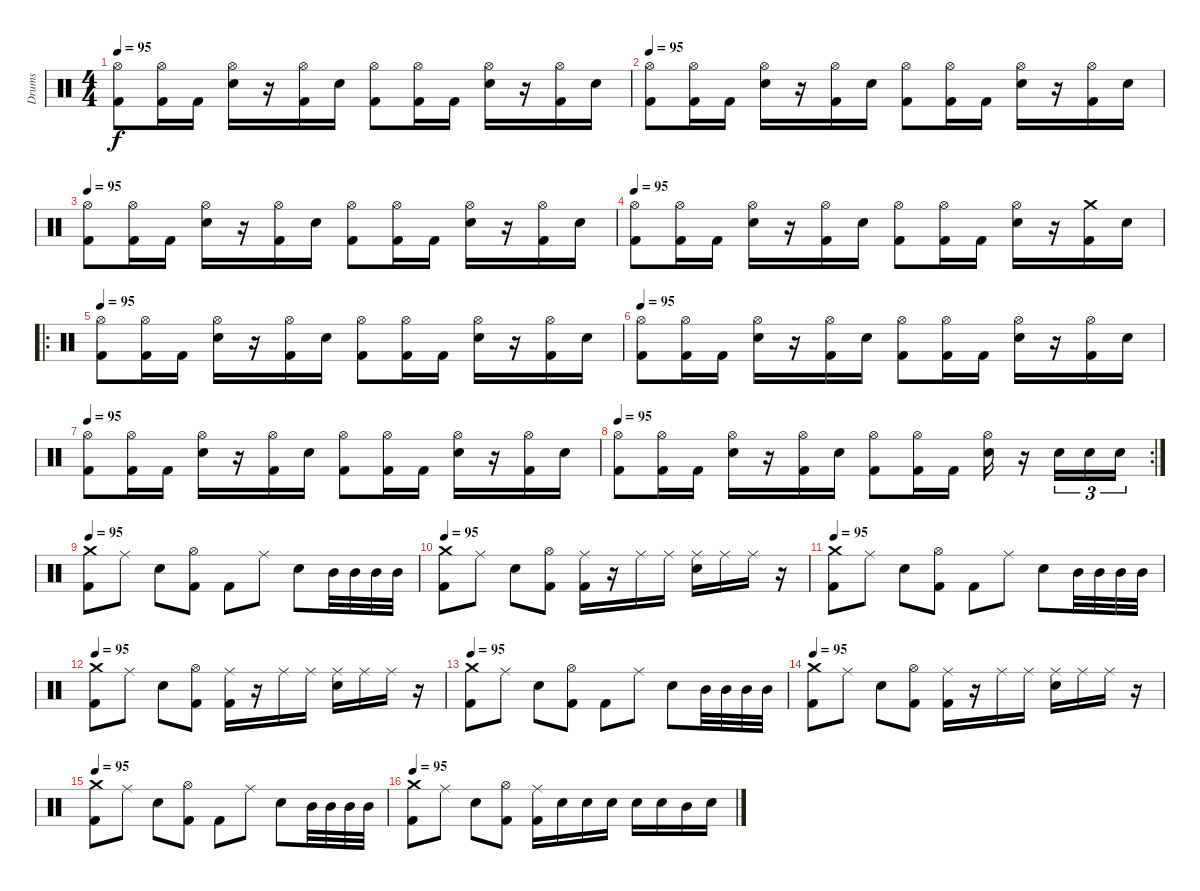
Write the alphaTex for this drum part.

\track ("Drums" "Drums") {instrument percussion}
\staff {score}
\articulation defaults
\ts (4 4)
\tempo 95
\clef neutral
\ks c
("Kick (hit) 2" "Hi-Hat (open)").8{dy f} ("Kick (hit) 2" "Hi-Hat (open)").16 "Kick (hit) 2".16 ("Electric Snare (hit)" "Hi-Hat (open)").16 r.16 ("Kick (hit) 2" "Hi-Hat (open)").16 "Electric Snare (hit)".16 ("Kick (hit) 2" "Hi-Hat (open)").8 ("Kick (hit) 2" "Hi-Hat (open)").16 "Kick (hit) 2".16 ("Electric Snare (hit)" "Hi-Hat (open)").16 r.16 ("Kick (hit) 2" "Hi-Hat (open)").16 "Electric Snare (hit)".16 |
\tempo 95
("Kick (hit) 2" "Hi-Hat (open)").8 ("Kick (hit) 2" "Hi-Hat (open)").16 "Kick (hit) 2".16 ("Electric Snare (hit)" "Hi-Hat (open)").16 r.16 ("Kick (hit) 2" "Hi-Hat (open)").16 "Electric Snare (hit)".16 ("Kick (hit) 2" "Hi-Hat (open)").8 ("Kick (hit) 2" "Hi-Hat (open)").16 "Kick (hit) 2".16 ("Electric Snare (hit)" "Hi-Hat (open)").16 r.16 ("Kick (hit) 2" "Hi-Hat (open)").16 "Electric Snare (hit)".16 |
\tempo 95
("Kick (hit) 2" "Hi-Hat (open)").8 ("Kick (hit) 2" "Hi-Hat (open)").16 "Kick (hit) 2".16 ("Electric Snare (hit)" "Hi-Hat (open)").16 r.16 ("Kick (hit) 2" "Hi-Hat (open)").16 "Electric Snare (hit)".16 ("Kick (hit) 2" "Hi-Hat (open)").8 ("Kick (hit) 2" "Hi-Hat (open)").16 "Kick (hit) 2".16 ("Electric Snare (hit)" "Hi-Hat (open)").16 r.16 ("Kick (hit) 2" "Hi-Hat (open)").16 "Electric Snare (hit)".16 |
\tempo 95
("Kick (hit) 2" "Hi-Hat (open)").8 ("Kick (hit) 2" "Hi-Hat (open)").16 "Kick (hit) 2".16 ("Electric Snare (hit)" "Hi-Hat (open)").16 r.16 ("Kick (hit) 2" "Hi-Hat (open)").16 "Electric Snare (hit)".16 ("Kick (hit) 2" "Hi-Hat (open)").8 ("Kick (hit) 2" "Hi-Hat (open)").16 "Kick (hit) 2".16 ("Electric Snare (hit)" "Hi-Hat (open)").16 r.16 ("Kick (hit) 2" "Crash medium (hit)").16 "Electric Snare (hit)".16 |
\ro
\tempo 95
("Kick (hit) 2" "Hi-Hat (open)").8 ("Kick (hit) 2" "Hi-Hat (open)").16 "Kick (hit) 2".16 ("Electric Snare (hit)" "Hi-Hat (open)").16 r.16 ("Kick (hit) 2" "Hi-Hat (open)").16 "Electric Snare (hit)".16 ("Kick (hit) 2" "Hi-Hat (open)").8 ("Kick (hit) 2" "Hi-Hat (open)").16 "Kick (hit) 2".16 ("Electric Snare (hit)" "Hi-Hat (open)").16 r.16 ("Kick (hit) 2" "Hi-Hat (open)").16 "Electric Snare (hit)".16 |
\tempo 95
("Kick (hit) 2" "Hi-Hat (open)").8 ("Kick (hit) 2" "Hi-Hat (open)").16 "Kick (hit) 2".16 ("Electric Snare (hit)" "Hi-Hat (open)").16 r.16 ("Kick (hit) 2" "Hi-Hat (open)").16 "Electric Snare (hit)".16 ("Kick (hit) 2" "Hi-Hat (open)").8 ("Kick (hit) 2" "Hi-Hat (open)").16 "Kick (hit) 2".16 ("Electric Snare (hit)" "Hi-Hat (open)").16 r.16 ("Kick (hit) 2" "Hi-Hat (open)").16 "Electric Snare (hit)".16 |
\tempo 95
("Kick (hit) 2" "Hi-Hat (open)").8 ("Kick (hit) 2" "Hi-Hat (open)").16 "Kick (hit) 2".16 ("Electric Snare (hit)" "Hi-Hat (open)").16 r.16 ("Kick (hit) 2" "Hi-Hat (open)").16 "Electric Snare (hit)".16 ("Kick (hit) 2" "Hi-Hat (open)").8 ("Kick (hit) 2" "Hi-Hat (open)").16 "Kick (hit) 2".16 ("Electric Snare (hit)" "Hi-Hat (open)").16 r.16 ("Kick (hit) 2" "Hi-Hat (open)").16 "Electric Snare (hit)".16 |
\rc 2
\tempo 95
("Kick (hit) 2" "Hi-Hat (open)").8 ("Kick (hit) 2" "Hi-Hat (open)").16 "Kick (hit) 2".16 ("Electric Snare (hit)" "Hi-Hat (open)").16 r.16 ("Kick (hit) 2" "Hi-Hat (open)").16 "Electric Snare (hit)".16 ("Kick (hit) 2" "Hi-Hat (open)").8 ("Kick (hit) 2" "Hi-Hat (open)").16 "Kick (hit) 2".16 ("Electric Snare (hit)" "Hi-Hat (open)").16 r.16 "Electric Snare (hit)".16{tu (3 2)} "Electric Snare (hit)".16{tu (3 2)} "Electric Snare (hit)".16{tu (3 2)} |
\tempo 95
("Kick (hit) 2" "Crash medium (hit)").8 "Ride (middle)".8 "Electric Snare (hit)".8 ("Kick (hit) 2" "Hi-Hat (open)").8 "Kick (hit) 2".8 "Ride (middle)".8 "Electric Snare (hit)".8 "Mid Tom (hit)".32 "Mid Tom (hit)".32 "Mid Tom (hit)".32 "Mid Tom (hit)".32 |
\tempo 95
("Kick (hit) 2" "Crash medium (hit)").8 "Ride (middle)".8 "Electric Snare (hit)".8 ("Kick (hit) 2" "Hi-Hat (open)").8 ("Kick (hit) 2" "Ride (middle)").16 r.16 "Ride (middle)".16 "Ride (middle)".16 ("Ride (middle)" "Electric Snare (hit)").16 "Ride (middle)".16 "Ride (middle)".16 r.16 |
\tempo 95
("Kick (hit) 2" "Crash medium (hit)").8 "Ride (middle)".8 "Electric Snare (hit)".8 ("Kick (hit) 2" "Hi-Hat (open)").8 "Kick (hit) 2".8 "Ride (middle)".8 "Electric Snare (hit)".8 "Mid Tom (hit)".32 "Mid Tom (hit)".32 "Mid Tom (hit)".32 "Mid Tom (hit)".32 |
\tempo 95
("Kick (hit) 2" "Crash medium (hit)").8 "Ride (middle)".8 "Electric Snare (hit)".8 ("Kick (hit) 2" "Hi-Hat (open)").8 ("Kick (hit) 2" "Ride (middle)").16 r.16 "Ride (middle)".16 "Ride (middle)".16 ("Ride (middle)" "Electric Snare (hit)").16 "Ride (middle)".16 "Ride (middle)".16 r.16 |
\tempo 95
("Kick (hit) 2" "Crash medium (hit)").8 "Ride (middle)".8 "Electric Snare (hit)".8 ("Kick (hit) 2" "Hi-Hat (open)").8 "Kick (hit) 2".8 "Ride (middle)".8 "Electric Snare (hit)".8 "Mid Tom (hit)".32 "Mid Tom (hit)".32 "Mid Tom (hit)".32 "Mid Tom (hit)".32 |
\tempo 95
("Kick (hit) 2" "Crash medium (hit)").8 "Ride (middle)".8 "Electric Snare (hit)".8 ("Kick (hit) 2" "Hi-Hat (open)").8 ("Kick (hit) 2" "Ride (middle)").16 r.16 "Ride (middle)".16 "Ride (middle)".16 ("Ride (middle)" "Electric Snare (hit)").16 "Ride (middle)".16 "Ride (middle)".16 r.16 |
\tempo 95
("Kick (hit) 2" "Crash medium (hit)").8 "Ride (middle)".8 "Electric Snare (hit)".8 ("Kick (hit) 2" "Hi-Hat (open)").8 "Kick (hit) 2".8 "Ride (middle)".8 "Electric Snare (hit)".8 "Mid Tom (hit)".32 "Mid Tom (hit)".32 "Mid Tom (hit)".32 "Mid Tom (hit)".32 |
\tempo 95
("Kick (hit) 2" "Crash medium (hit)").8 "Ride (middle)".8 "Electric Snare (hit)".8 ("Kick (hit) 2" "Hi-Hat (open)").8 ("Kick (hit) 2" "Ride (middle)").16 "Electric Snare (hit)".16 "Electric Snare (hit)".16 "Electric Snare (hit)".16 "Electric Snare (hit)".16 "Snare (hit) 2".16 "Mid Tom (hit)".16 "Electric Snare (hit)".16
